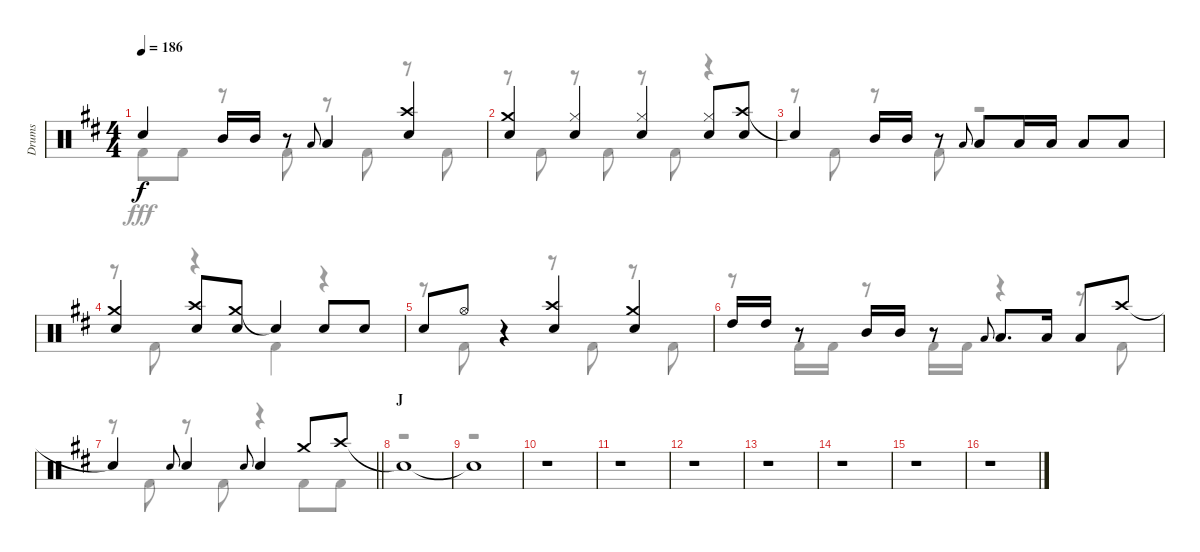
\track ("Drums" "Drums") {instrument percussion}
\staff {score}
\articulation defaults
\voice
\ts (4 4)
\tempo 186
\clef neutral
\ks d "Snare (hit)"{t}.4{dy f} "Mid Tom (hit)".16 "Mid Tom (hit)".16
r.8 "Low Tom (hit)".8{gr onbeat} "Low Tom (hit)".4 ("Crash high (hit)" "Snare (hit) 2").4 |
("Crash medium (hit)" "Snare (hit) 2").4 ("Hi-Hat (closed)" "Snare (hit) 2").4 ("Hi-Hat (closed)" "Snare (hit) 2").4 ("Hi-Hat (closed)" "Snare (hit) 2").8 ("Crash high (hit)" "Snare (hit) 2").8 |
"Snare (hit)"{t}.4 "Mid Tom (hit)".16 "Mid Tom (hit)".16 r.8 "Low Tom (hit)".8{gr onbeat} "Low Tom (hit)".8 "Low Tom (hit)".16 "Low Tom (hit)".16 "Low Tom (hit)".8 "Low Tom (hit)".8 |
("Crash medium (hit)" "Snare (hit) 2").4 ("Crash high (hit)" "Snare (hit) 2").8 ("Crash medium (hit)" "Snare (hit) 2").8 "Snare (hit)"{t}.4 "Snare (hit) 2".8 "Snare (hit) 2".8 |
"Snare (hit) 2".8 "Hi-Hat (open)".8 r.4 ("Crash high (hit)" "Snare (hit) 2").4 ("Crash medium (hit)" "Snare (hit) 2").4 |
"High Tom (hit)".16 "High Tom (hit)".16 r.8 "Mid Tom (hit)".16 "Mid Tom (hit)".16 r.8 "Low Tom (hit)".8{gr onbeat} "Low Tom (hit)".8{d} "Low Tom (hit)".16 "Low Tom (hit)".8 "Crash high (hit)".8 |
\barLineRight lightlight "Snare (hit)"{t}.4 "Snare (hit) 2".8{gr onbeat} "Snare (hit) 2".4 "Snare (hit) 2".8{gr onbeat} "Snare (hit) 2".4 "Crash medium (hit)".8 "Crash high (hit)".8
|
\section ("" "J")
"Snare (hit)"{t}.1 |
"Snare (hit)"{t}.1 |
r.1 |
r.1 |
r.1 |
r.1 |
r.1 |
r.1 |
r.1
\voice
\clef neutral
\ottava regular
\simile none
\ks d "Kick (hit) 2".8{dy fff} "Kick (hit) 2".8
r.8 "Kick (hit) 2".8 r.8 "Kick (hit) 2".8 r.8 "Kick (hit) 2".8 |
r.8 "Kick (hit) 2".8 r.8 "Kick (hit) 2".8 r.8 "Kick (hit) 2".8 r.4 |
r.8 "Kick (hit) 2".8 r.8 "Kick (hit) 2".8 r.2 |
r.8 "Kick (hit) 2".8 r.4 "Kick (hit) 2".4 r.4 |
r.8 "Kick (hit) 2".8 r.4 r.8 "Kick (hit) 2".8 r.8 "Kick (hit) 2".8 |
r.8 "Kick (hit) 2".16 "Kick (hit) 2".16 r.8 "Kick (hit) 2".16 "Kick (hit) 2".16 r.4 r.8 "Kick (hit) 2".8 |
\barLineRight lightlight
r.8 "Kick (hit) 2".8 r.8 "Kick (hit) 2".8 r.4 "Kick (hit) 2".8 "Kick (hit) 2".8 |
r.1 |
r.1 |
r.1 |
r.1 |
r.1 |
r.1 |
r.1 |
r.1 |
r.1
